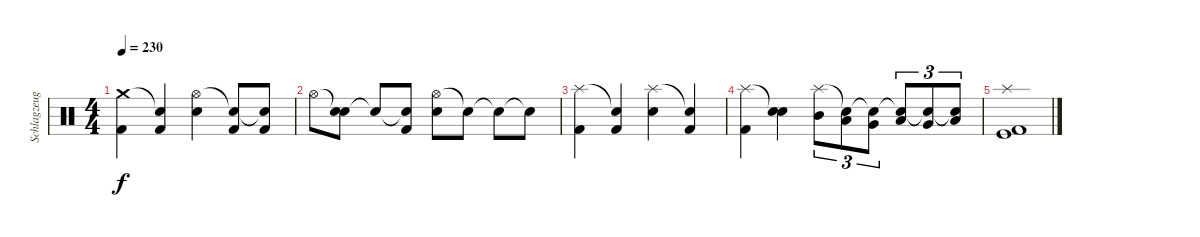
\track ("Schlagzeug" "Schlagzeug") {instrument percussion}
\staff {score}
\articulation defaults
\ts (4 4)
\tempo 230
\clef neutral
\ks c
("Crash medium (hit)" "Kick (hit) 2").4{dy f} ("Snare (hit)"{t} "Kick (hit) 2").4 ("Hi-Hat (open)" "Snare (hit) 2").4 ("Snare (hit)"{t} "Kick (hit) 2").8 ("Snare (hit)"{t} "Kick (hit) 2").8 |
"Hi-Hat (open)".8 ("Snare (hit)"{t} "Snare (hit) 2").8 "Snare (hit)"{t}.8 ("Snare (hit)"{t} "Kick (hit) 2").8 ("Hi-Hat (open)" "Snare (hit) 2").8 "Snare (hit)"{t}.8 "Snare (hit)"{t}.8 "Snare (hit)"{t}.8 |
("Splash (hit)" "Kick (hit) 2").4 ("Snare (hit)"{t} "Kick (hit) 2").4 ("Splash (hit)" "Snare (hit) 2").4 ("Snare (hit)"{t} "Kick (hit) 2").4 |
("Splash (hit)" "Kick (hit) 2").4 ("Snare (hit)"{t} "Snare (hit) 2").4 ("Splash (hit)" "Mid Tom (hit)").8{tu (3 2)} ("Snare (hit)"{t} "Low Tom (hit)").8{tu (3 2)} ("Snare (hit)"{t} "Very Low Tom (hit)").8{tu (3 2)} ("Snare (hit)"{t} "Low Tom (hit)").8{tu (3 2)} ("Snare (hit)"{t} "Very Low Tom (hit)").8{tu (3 2)} ("Snare (hit)"{t} "Low Floor Tom (hit)").8{tu (3 2)} |
("Splash (hit)" "Kick (hit) 2" "Kick (hit)").1
